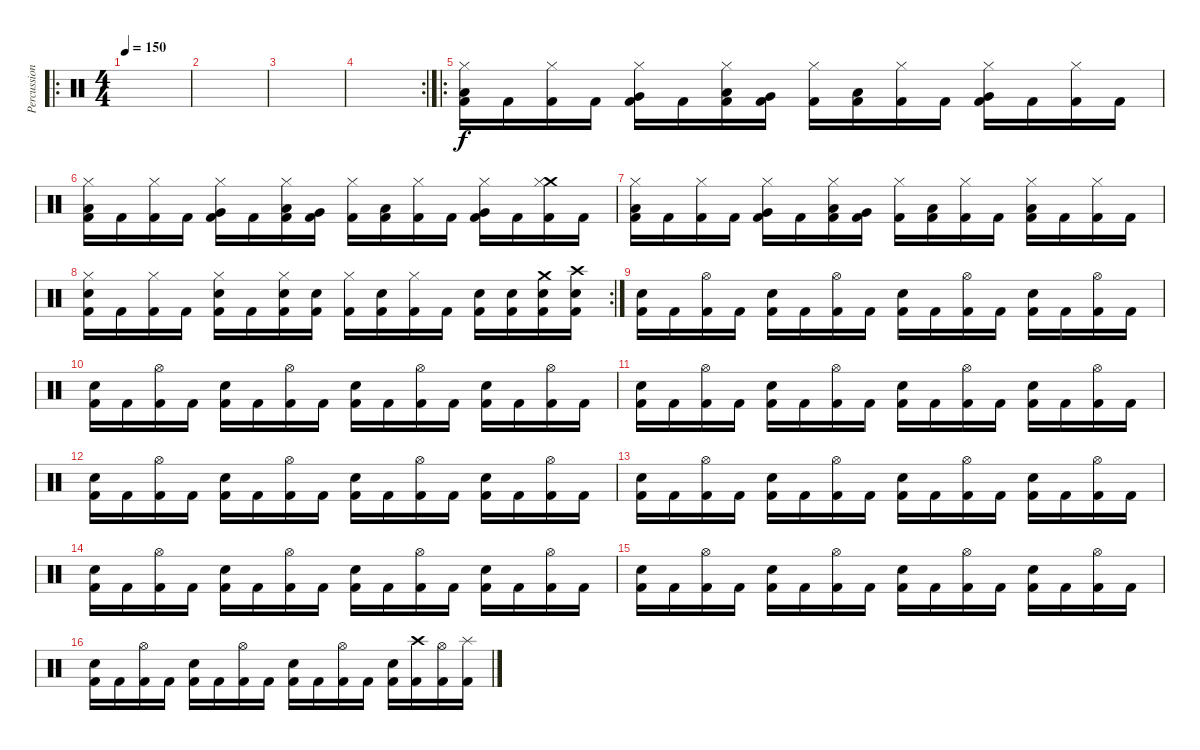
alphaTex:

\track ("Percussions" "Percussion") {instrument percussion}
\staff {score}
\articulation defaults
\ro
\ts (4 4)
\tempo 150
\clef neutral
\ks c
|
|
|
\rc 2
|
\ro
("Hi-Hat (closed)" "Low Floor Tom (hit)" "Kick (hit) 2").16 "Kick (hit) 2".16 ("Hi-Hat (closed)" "Kick (hit) 2").16 "Kick (hit) 2".16 ("Hi-Hat (closed)" "Very Low Tom (hit)" "Kick (hit) 2").16 "Kick (hit) 2".16 ("Hi-Hat (closed)" "Low Tom (hit)" "Kick (hit) 2").16 ("Very Low Tom (hit)" "Kick (hit) 2").16 ("Hi-Hat (closed)" "Kick (hit) 2").16 ("Low Floor Tom (hit)" "Kick (hit) 2").16 ("Hi-Hat (closed)" "Kick (hit) 2").16 "Kick (hit) 2".16 ("Hi-Hat (closed)" "Very Low Tom (hit)" "Kick (hit) 2").16 "Kick (hit) 2".16 ("Hi-Hat (closed)" "Kick (hit) 2").16 "Kick (hit) 2".16 |
("Hi-Hat (closed)" "Low Floor Tom (hit)" "Kick (hit) 2").16 "Kick (hit) 2".16 ("Hi-Hat (closed)" "Kick (hit) 2").16 "Kick (hit) 2".16 ("Hi-Hat (closed)" "Very Low Tom (hit)" "Kick (hit) 2").16 "Kick (hit) 2".16 ("Hi-Hat (closed)" "Low Tom (hit)" "Kick (hit) 2").16 ("Very Low Tom (hit)" "Kick (hit) 2").16 ("Hi-Hat (closed)" "Kick (hit) 2").16 ("Low Floor Tom (hit)" "Kick (hit) 2").16 ("Hi-Hat (closed)" "Kick (hit) 2").16 "Kick (hit) 2".16 ("Hi-Hat (closed)" "Very Low Tom (hit)" "Kick (hit) 2").16 "Kick (hit) 2".16 ("Crash medium (hit)" "Hi-Hat (closed)" "Kick (hit) 2").16 "Kick (hit) 2".16 |
("Hi-Hat (closed)" "Low Floor Tom (hit)" "Kick (hit) 2").16 "Kick (hit) 2".16 ("Hi-Hat (closed)" "Kick (hit) 2").16 "Kick (hit) 2".16 ("Hi-Hat (closed)" "Very Low Tom (hit)" "Kick (hit) 2").16 "Kick (hit) 2".16 ("Hi-Hat (closed)" "Low Tom (hit)" "Kick (hit) 2").16 ("Very Low Tom (hit)" "Kick (hit) 2").16 ("Hi-Hat (closed)" "Kick (hit) 2").16 ("Low Floor Tom (hit)" "Kick (hit) 2").16 ("Hi-Hat (closed)" "Kick (hit) 2").16 "Kick (hit) 2".16 ("Hi-Hat (closed)" "Low Floor Tom (hit)" "Kick (hit) 2").16 "Kick (hit) 2".16 ("Hi-Hat (closed)" "Kick (hit) 2").16 "Kick (hit) 2".16 |
\rc 2
("Hi-Hat (closed)" "Electric Snare (hit)" "Kick (hit) 2").16 "Kick (hit) 2".16 ("Hi-Hat (closed)" "Kick (hit) 2").16 "Kick (hit) 2".16 ("Hi-Hat (closed)" "Electric Snare (hit)" "Kick (hit) 2").16 "Kick (hit) 2".16 ("Hi-Hat (closed)" "Electric Snare (hit)" "Kick (hit) 2").16 ("Electric Snare (hit)" "Kick (hit) 2").16 ("Hi-Hat (closed)" "Kick (hit) 2").16 ("Electric Snare (hit)" "Kick (hit) 2").16 ("Hi-Hat (closed)" "Kick (hit) 2").16 "Kick (hit) 2".16 ("Electric Snare (hit)" "Kick (hit) 2").16 ("Electric Snare (hit)" "Kick (hit) 2").16 ("Crash medium (hit)" "Electric Snare (hit)" "Kick (hit) 2").16 ("Crash high (hit)" "Electric Snare (hit)" "Kick (hit) 2").16 |
("Electric Snare (hit)" "Kick (hit) 2").16 "Kick (hit) 2".16 ("Hi-Hat (open)" "Kick (hit) 2").16 "Kick (hit) 2".16 ("Electric Snare (hit)" "Kick (hit) 2").16 "Kick (hit) 2".16 ("Hi-Hat (open)" "Kick (hit) 2").16 "Kick (hit) 2".16 ("Electric Snare (hit)" "Kick (hit) 2").16 "Kick (hit) 2".16 ("Hi-Hat (open)" "Kick (hit) 2").16 "Kick (hit) 2".16 ("Electric Snare (hit)" "Kick (hit) 2").16 "Kick (hit) 2".16 ("Hi-Hat (open)" "Kick (hit) 2").16 "Kick (hit) 2".16 |
("Electric Snare (hit)" "Kick (hit) 2").16 "Kick (hit) 2".16 ("Hi-Hat (open)" "Kick (hit) 2").16 "Kick (hit) 2".16 ("Electric Snare (hit)" "Kick (hit) 2").16 "Kick (hit) 2".16 ("Hi-Hat (open)" "Kick (hit) 2").16 "Kick (hit) 2".16 ("Electric Snare (hit)" "Kick (hit) 2").16 "Kick (hit) 2".16 ("Hi-Hat (open)" "Kick (hit) 2").16 "Kick (hit) 2".16 ("Electric Snare (hit)" "Kick (hit) 2").16 "Kick (hit) 2".16 ("Hi-Hat (open)" "Kick (hit) 2").16 "Kick (hit) 2".16 |
("Electric Snare (hit)" "Kick (hit) 2").16 "Kick (hit) 2".16 ("Hi-Hat (open)" "Kick (hit) 2").16 "Kick (hit) 2".16 ("Electric Snare (hit)" "Kick (hit) 2").16 "Kick (hit) 2".16 ("Hi-Hat (open)" "Kick (hit) 2").16 "Kick (hit) 2".16 ("Electric Snare (hit)" "Kick (hit) 2").16 "Kick (hit) 2".16 ("Hi-Hat (open)" "Kick (hit) 2").16 "Kick (hit) 2".16 ("Electric Snare (hit)" "Kick (hit) 2").16 "Kick (hit) 2".16 ("Hi-Hat (open)" "Kick (hit) 2").16 "Kick (hit) 2".16 |
("Electric Snare (hit)" "Kick (hit) 2").16 "Kick (hit) 2".16 ("Hi-Hat (open)" "Kick (hit) 2").16 "Kick (hit) 2".16 ("Electric Snare (hit)" "Kick (hit) 2").16 "Kick (hit) 2".16 ("Hi-Hat (open)" "Kick (hit) 2").16 "Kick (hit) 2".16 ("Electric Snare (hit)" "Kick (hit) 2").16 "Kick (hit) 2".16 ("Hi-Hat (open)" "Kick (hit) 2").16 "Kick (hit) 2".16 ("Electric Snare (hit)" "Kick (hit) 2").16 "Kick (hit) 2".16 ("Hi-Hat (open)" "Kick (hit) 2").16 "Kick (hit) 2".16 |
("Electric Snare (hit)" "Kick (hit) 2").16 "Kick (hit) 2".16 ("Hi-Hat (open)" "Kick (hit) 2").16 "Kick (hit) 2".16 ("Electric Snare (hit)" "Kick (hit) 2").16 "Kick (hit) 2".16 ("Hi-Hat (open)" "Kick (hit) 2").16 "Kick (hit) 2".16 ("Electric Snare (hit)" "Kick (hit) 2").16 "Kick (hit) 2".16 ("Hi-Hat (open)" "Kick (hit) 2").16 "Kick (hit) 2".16 ("Electric Snare (hit)" "Kick (hit) 2").16 "Kick (hit) 2".16 ("Hi-Hat (open)" "Kick (hit) 2").16 "Kick (hit) 2".16 |
("Electric Snare (hit)" "Kick (hit) 2").16 "Kick (hit) 2".16 ("Hi-Hat (open)" "Kick (hit) 2").16 "Kick (hit) 2".16 ("Electric Snare (hit)" "Kick (hit) 2").16 "Kick (hit) 2".16 ("Hi-Hat (open)" "Kick (hit) 2").16 "Kick (hit) 2".16 ("Electric Snare (hit)" "Kick (hit) 2").16 "Kick (hit) 2".16 ("Hi-Hat (open)" "Kick (hit) 2").16 "Kick (hit) 2".16 ("Electric Snare (hit)" "Kick (hit) 2").16 "Kick (hit) 2".16 ("Hi-Hat (open)" "Kick (hit) 2").16 "Kick (hit) 2".16 |
("Electric Snare (hit)" "Kick (hit) 2").16 "Kick (hit) 2".16 ("Hi-Hat (open)" "Kick (hit) 2").16 "Kick (hit) 2".16 ("Electric Snare (hit)" "Kick (hit) 2").16 "Kick (hit) 2".16 ("Hi-Hat (open)" "Kick (hit) 2").16 "Kick (hit) 2".16 ("Electric Snare (hit)" "Kick (hit) 2").16 "Kick (hit) 2".16 ("Hi-Hat (open)" "Kick (hit) 2").16 "Kick (hit) 2".16 ("Electric Snare (hit)" "Kick (hit) 2").16 "Kick (hit) 2".16 ("Hi-Hat (open)" "Kick (hit) 2").16 "Kick (hit) 2".16 |
("Electric Snare (hit)" "Kick (hit) 2").16 "Kick (hit) 2".16 ("Hi-Hat (open)" "Kick (hit) 2").16 "Kick (hit) 2".16 ("Electric Snare (hit)" "Kick (hit) 2").16 "Kick (hit) 2".16 ("Hi-Hat (open)" "Kick (hit) 2").16 "Kick (hit) 2".16 ("Electric Snare (hit)" "Kick (hit) 2").16 "Kick (hit) 2".16 ("Hi-Hat (open)" "Kick (hit) 2").16 "Kick (hit) 2".16 ("Electric Snare (hit)" "Kick (hit) 2").16 ("Crash high (hit)" "Kick (hit) 2").16 ("Hi-Hat (open)" "Kick (hit) 2").16 ("Splash (hit)" "Kick (hit) 2").16
